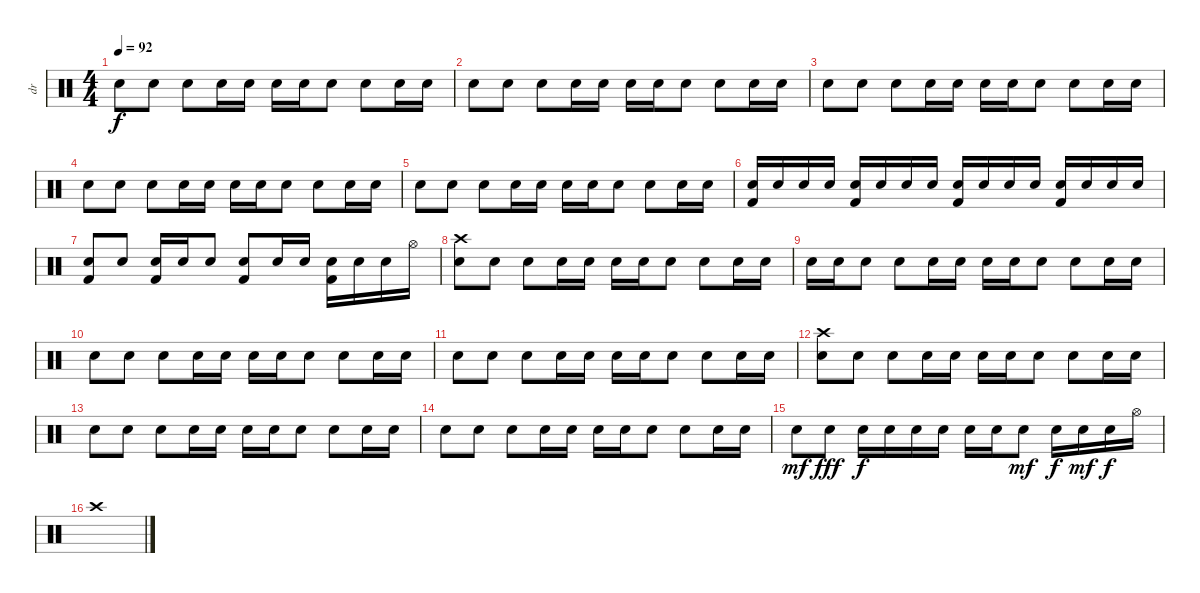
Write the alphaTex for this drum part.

\track ("dr" "dr") {instrument percussion}
\staff {score}
\articulation defaults
\ts (4 4)
\tempo 92
\clef neutral
\ks c "Electric Snare (hit)".8{dy f} "Electric Snare (hit)".8 "Electric Snare (hit)".8 "Electric Snare (hit)".16 "Electric Snare (hit)".16 "Electric Snare (hit)".16 "Electric Snare (hit)".16 "Electric Snare (hit)".8 "Electric Snare (hit)".8 "Electric Snare (hit)".16 "Electric Snare (hit)".16
|
"Electric Snare (hit)".8 "Electric Snare (hit)".8 "Electric Snare (hit)".8 "Electric Snare (hit)".16 "Electric Snare (hit)".16 "Electric Snare (hit)".16 "Electric Snare (hit)".16 "Electric Snare (hit)".8 "Electric Snare (hit)".8 "Electric Snare (hit)".16 "Electric Snare (hit)".16 |
"Electric Snare (hit)".8 "Electric Snare (hit)".8 "Electric Snare (hit)".8 "Electric Snare (hit)".16 "Electric Snare (hit)".16 "Electric Snare (hit)".16 "Electric Snare (hit)".16 "Electric Snare (hit)".8 "Electric Snare (hit)".8 "Electric Snare (hit)".16 "Electric Snare (hit)".16 |
"Electric Snare (hit)".8 "Electric Snare (hit)".8 "Electric Snare (hit)".8 "Electric Snare (hit)".16 "Electric Snare (hit)".16 "Electric Snare (hit)".16 "Electric Snare (hit)".16 "Electric Snare (hit)".8 "Electric Snare (hit)".8 "Electric Snare (hit)".16 "Electric Snare (hit)".16 |
"Electric Snare (hit)".8 "Electric Snare (hit)".8 "Electric Snare (hit)".8 "Electric Snare (hit)".16 "Electric Snare (hit)".16 "Electric Snare (hit)".16 "Electric Snare (hit)".16 "Electric Snare (hit)".8 "Electric Snare (hit)".8 "Electric Snare (hit)".16 "Electric Snare (hit)".16 |
("Electric Snare (hit)" "Kick (hit) 2").16 "Electric Snare (hit)".16 "Electric Snare (hit)".16 "Electric Snare (hit)".16 ("Electric Snare (hit)" "Kick (hit) 2").16 "Electric Snare (hit)".16 "Electric Snare (hit)".16 "Electric Snare (hit)".16 ("Electric Snare (hit)" "Kick (hit) 2").16 "Electric Snare (hit)".16 "Electric Snare (hit)".16 "Electric Snare (hit)".16 ("Electric Snare (hit)" "Kick (hit) 2").16 "Electric Snare (hit)".16 "Electric Snare (hit)".16 "Electric Snare (hit)".16 |
("Electric Snare (hit)" "Kick (hit) 2").8 "Electric Snare (hit)".8 ("Electric Snare (hit)" "Kick (hit) 2").16 "Electric Snare (hit)".16 "Electric Snare (hit)".8 ("Electric Snare (hit)" "Kick (hit) 2").8 "Electric Snare (hit)".16 "Electric Snare (hit)".16 ("Electric Snare (hit)" "Kick (hit) 2").16 "Electric Snare (hit)".16 "Electric Snare (hit)".16 "Hi-Hat (open)".16 |
("Crash high (hit)" "Electric Snare (hit)").8 "Electric Snare (hit)".8 "Electric Snare (hit)".8 "Electric Snare (hit)".16 "Electric Snare (hit)".16 "Electric Snare (hit)".16 "Electric Snare (hit)".16 "Electric Snare (hit)".8 "Electric Snare (hit)".8 "Electric Snare (hit)".16 "Electric Snare (hit)".16 |
"Electric Snare (hit)".16 "Electric Snare (hit)".16 "Electric Snare (hit)".8 "Electric Snare (hit)".8 "Electric Snare (hit)".16 "Electric Snare (hit)".16 "Electric Snare (hit)".16 "Electric Snare (hit)".16 "Electric Snare (hit)".8 "Electric Snare (hit)".8 "Electric Snare (hit)".16 "Electric Snare (hit)".16 |
"Electric Snare (hit)".8 "Electric Snare (hit)".8 "Electric Snare (hit)".8 "Electric Snare (hit)".16 "Electric Snare (hit)".16 "Electric Snare (hit)".16 "Electric Snare (hit)".16 "Electric Snare (hit)".8 "Electric Snare (hit)".8 "Electric Snare (hit)".16 "Electric Snare (hit)".16 |
"Electric Snare (hit)".8 "Electric Snare (hit)".8 "Electric Snare (hit)".8 "Electric Snare (hit)".16 "Electric Snare (hit)".16 "Electric Snare (hit)".16 "Electric Snare (hit)".16 "Electric Snare (hit)".8 "Electric Snare (hit)".8 "Electric Snare (hit)".16 "Electric Snare (hit)".16 |
("Crash high (hit)" "Electric Snare (hit)").8 "Electric Snare (hit)".8 "Electric Snare (hit)".8 "Electric Snare (hit)".16 "Electric Snare (hit)".16 "Electric Snare (hit)".16 "Electric Snare (hit)".16 "Electric Snare (hit)".8 "Electric Snare (hit)".8 "Electric Snare (hit)".16 "Electric Snare (hit)".16 |
"Electric Snare (hit)".8 "Electric Snare (hit)".8 "Electric Snare (hit)".8 "Electric Snare (hit)".16 "Electric Snare (hit)".16 "Electric Snare (hit)".16 "Electric Snare (hit)".16 "Electric Snare (hit)".8 "Electric Snare (hit)".8 "Electric Snare (hit)".16 "Electric Snare (hit)".16 |
"Electric Snare (hit)".8 "Electric Snare (hit)".8 "Electric Snare (hit)".8 "Electric Snare (hit)".16 "Electric Snare (hit)".16 "Electric Snare (hit)".16 "Electric Snare (hit)".16 "Electric Snare (hit)".8 "Electric Snare (hit)".8 "Electric Snare (hit)".16 "Electric Snare (hit)".16 |
"Electric Snare (hit)".8{dy mf} "Electric Snare (hit)".8{dy fff} "Electric Snare (hit)".16{dy f} "Electric Snare (hit)".16 "Electric Snare (hit)".16 "Electric Snare (hit)".16 "Electric Snare (hit)".16 "Electric Snare (hit)".16 "Electric Snare (hit)".8{dy mf} "Electric Snare (hit)".16{dy f} "Electric Snare (hit)".16{dy mf} "Electric Snare (hit)".16{dy f} "Hi-Hat (open)".16 |
"Crash high (hit)".1
